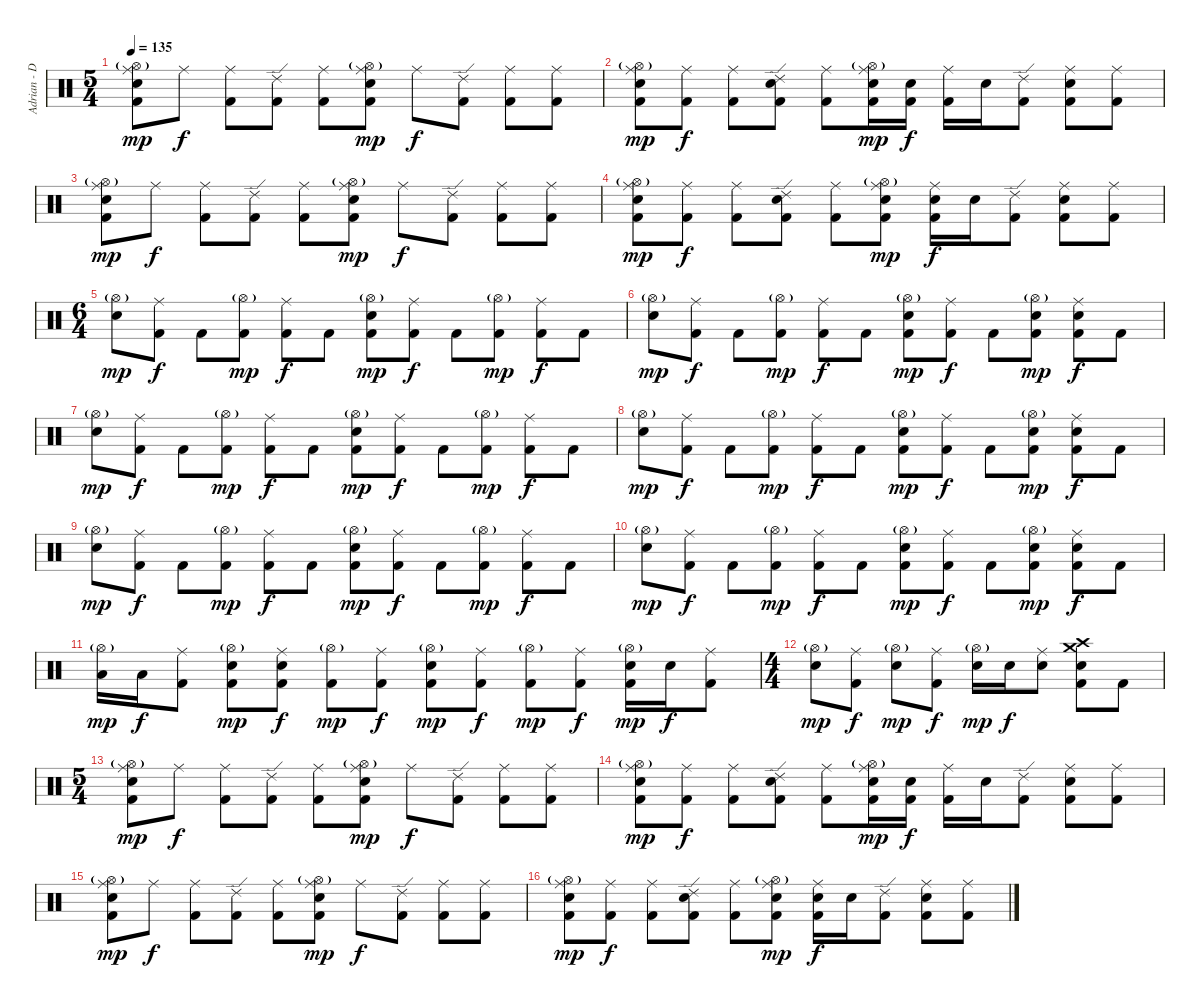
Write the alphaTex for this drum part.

\track ("Adrian - Drums" "Adrian - D") {instrument percussion}
\staff {score}
\articulation defaults
\ts (5 4)
\tempo 135
\clef neutral
\ks c
("Hi-Hat (open)"{g} "Ride (middle)" "Snare (hit) 2" "Kick (hit) 2").8{dy mp} "Ride (middle)".8{dy f} ("Ride (middle)" "Kick (hit) 2").8 ("Ride (edge) 2" "Kick (hit) 2").8 ("Ride (middle)" "Kick (hit) 2").8 ("Hi-Hat (open)"{g} "Ride (middle)" "Snare (hit) 2" "Kick (hit) 2").8{dy mp} "Ride (middle)".8{dy f} ("Ride (edge) 2" "Kick (hit) 2").8 ("Ride (middle)" "Kick (hit) 2").8 ("Ride (middle)" "Kick (hit) 2").8 |
("Hi-Hat (open)"{g} "Ride (middle)" "Snare (hit) 2" "Kick (hit) 2").8{dy mp} ("Ride (middle)" "Kick (hit) 2").8{dy f} ("Ride (middle)" "Kick (hit) 2").8 ("Ride (edge) 2" "Snare (hit) 2" "Kick (hit) 2").8 ("Ride (middle)" "Kick (hit) 2").8 ("Hi-Hat (open)"{g} "Ride (middle)" "Snare (hit) 2" "Kick (hit) 2").16{dy mp} ("Snare (hit) 2" "Kick (hit) 2").16{dy f} ("Ride (middle)" "Kick (hit) 2").16 "Snare (hit) 2".16 ("Ride (edge) 2" "Kick (hit) 2").8 ("Ride (middle)" "Snare (hit) 2" "Kick (hit) 2").8 ("Ride (middle)" "Kick (hit) 2").8 |
("Hi-Hat (open)"{g} "Ride (middle)" "Snare (hit) 2" "Kick (hit) 2").8{dy mp} "Ride (middle)".8{dy f} ("Ride (middle)" "Kick (hit) 2").8 ("Ride (edge) 2" "Kick (hit) 2").8 ("Ride (middle)" "Kick (hit) 2").8 ("Hi-Hat (open)"{g} "Ride (middle)" "Snare (hit) 2" "Kick (hit) 2").8{dy mp} "Ride (middle)".8{dy f} ("Ride (edge) 2" "Kick (hit) 2").8 ("Ride (middle)" "Kick (hit) 2").8 ("Ride (middle)" "Kick (hit) 2").8 |
("Hi-Hat (open)"{g} "Ride (middle)" "Snare (hit) 2" "Kick (hit) 2").8{dy mp} ("Ride (middle)" "Kick (hit) 2").8{dy f} ("Ride (middle)" "Kick (hit) 2").8 ("Ride (edge) 2" "Snare (hit) 2" "Kick (hit) 2").8 ("Ride (middle)" "Kick (hit) 2").8 ("Hi-Hat (open)"{g} "Ride (middle)" "Snare (hit) 2" "Kick (hit) 2").8{dy mp} ("Ride (middle)" "Snare (hit) 2" "Kick (hit) 2").16{dy f} "Snare (hit) 2".16 ("Ride (edge) 2" "Kick (hit) 2").8 ("Ride (middle)" "Snare (hit) 2" "Kick (hit) 2").8 ("Ride (middle)" "Kick (hit) 2").8 |
\ts (6 4)
("Hi-Hat (open)"{g} "Snare (hit) 2").8{dy mp} ("Ride (middle)" "Kick (hit) 2").8{dy f} "Kick (hit) 2".8 ("Hi-Hat (open)"{g} "Kick (hit) 2").8{dy mp} ("Ride (middle)" "Kick (hit) 2").8{dy f} "Kick (hit) 2".8 ("Hi-Hat (open)"{g} "Snare (hit) 2" "Kick (hit) 2").8{dy mp} ("Ride (middle)" "Kick (hit) 2").8{dy f} "Kick (hit) 2".8 ("Hi-Hat (open)"{g} "Kick (hit) 2").8{dy mp} ("Ride (middle)" "Kick (hit) 2").8{dy f} "Kick (hit) 2".8 |
("Hi-Hat (open)"{g} "Snare (hit) 2").8{dy mp} ("Ride (middle)" "Kick (hit) 2").8{dy f} "Kick (hit) 2".8 ("Hi-Hat (open)"{g} "Kick (hit) 2").8{dy mp} ("Ride (middle)" "Kick (hit) 2").8{dy f} "Kick (hit) 2".8 ("Hi-Hat (open)"{g} "Snare (hit) 2" "Kick (hit) 2").8{dy mp} ("Ride (middle)" "Kick (hit) 2").8{dy f} "Kick (hit) 2".8 ("Hi-Hat (open)"{g} "Snare (hit) 2" "Kick (hit) 2").8{dy mp} ("Ride (middle)" "Snare (hit) 2" "Kick (hit) 2").8{dy f} "Kick (hit) 2".8 |
("Hi-Hat (open)"{g} "Snare (hit) 2").8{dy mp} ("Ride (middle)" "Kick (hit) 2").8{dy f} "Kick (hit) 2".8 ("Hi-Hat (open)"{g} "Kick (hit) 2").8{dy mp} ("Ride (middle)" "Kick (hit) 2").8{dy f} "Kick (hit) 2".8 ("Hi-Hat (open)"{g} "Snare (hit) 2" "Kick (hit) 2").8{dy mp} ("Ride (middle)" "Kick (hit) 2").8{dy f} "Kick (hit) 2".8 ("Hi-Hat (open)"{g} "Kick (hit) 2").8{dy mp} ("Ride (middle)" "Kick (hit) 2").8{dy f} "Kick (hit) 2".8 |
("Hi-Hat (open)"{g} "Snare (hit) 2").8{dy mp} ("Ride (middle)" "Kick (hit) 2").8{dy f} "Kick (hit) 2".8 ("Hi-Hat (open)"{g} "Kick (hit) 2").8{dy mp} ("Ride (middle)" "Kick (hit) 2").8{dy f} "Kick (hit) 2".8 ("Hi-Hat (open)"{g} "Snare (hit) 2" "Kick (hit) 2").8{dy mp} ("Ride (middle)" "Kick (hit) 2").8{dy f} "Kick (hit) 2".8 ("Hi-Hat (open)"{g} "Snare (hit) 2" "Kick (hit) 2").8{dy mp} ("Ride (middle)" "Snare (hit) 2" "Kick (hit) 2").8{dy f} "Kick (hit) 2".8 |
("Hi-Hat (open)"{g} "Snare (hit) 2").8{dy mp} ("Ride (middle)" "Kick (hit) 2").8{dy f} "Kick (hit) 2".8 ("Hi-Hat (open)"{g} "Kick (hit) 2").8{dy mp} ("Ride (middle)" "Kick (hit) 2").8{dy f} "Kick (hit) 2".8 ("Hi-Hat (open)"{g} "Snare (hit) 2" "Kick (hit) 2").8{dy mp} ("Ride (middle)" "Kick (hit) 2").8{dy f} "Kick (hit) 2".8 ("Hi-Hat (open)"{g} "Kick (hit) 2").8{dy mp} ("Ride (middle)" "Kick (hit) 2").8{dy f} "Kick (hit) 2".8 |
("Hi-Hat (open)"{g} "Snare (hit) 2").8{dy mp} ("Ride (middle)" "Kick (hit) 2").8{dy f} "Kick (hit) 2".8 ("Hi-Hat (open)"{g} "Kick (hit) 2").8{dy mp} ("Ride (middle)" "Kick (hit) 2").8{dy f} "Kick (hit) 2".8 ("Hi-Hat (open)"{g} "Snare (hit) 2" "Kick (hit) 2").8{dy mp} ("Ride (middle)" "Kick (hit) 2").8{dy f} "Kick (hit) 2".8 ("Hi-Hat (open)"{g} "Snare (hit) 2" "Kick (hit) 2").8{dy mp} ("Ride (middle)" "Snare (hit) 2" "Kick (hit) 2").8{dy f} "Kick (hit) 2".8 |
("Hi-Hat (open)"{g} "Low Tom (hit)").16{dy mp} "Low Tom (hit)".16{dy f} ("Ride (middle)" "Kick (hit) 2").8 ("Hi-Hat (open)"{g} "Snare (hit) 2" "Kick (hit) 2").8{dy mp} ("Ride (middle)" "Snare (hit) 2" "Kick (hit) 2").8{dy f} ("Hi-Hat (open)"{g} "Kick (hit) 2").8{dy mp} ("Ride (middle)" "Kick (hit) 2").8{dy f} ("Hi-Hat (open)"{g} "Snare (hit) 2" "Kick (hit) 2").8{dy mp} ("Ride (middle)" "Kick (hit) 2").8{dy f} ("Hi-Hat (open)"{g} "Kick (hit) 2").8{dy mp} ("Ride (middle)" "Kick (hit) 2").8{dy f} ("Hi-Hat (open)"{g} "Snare (hit) 2" "Kick (hit) 2").16{dy mp} "Snare (hit) 2".16{dy f} ("Ride (middle)" "Kick (hit) 2").8 |
\ts (4 4)
("Hi-Hat (open)"{g} "Snare (hit) 2").8{dy mp} ("Ride (middle)" "Kick (hit) 2").8{dy f} ("Hi-Hat (open)"{g} "Snare (hit) 2").8{dy mp} ("Ride (middle)" "Kick (hit) 2").8{dy f} ("Hi-Hat (open)"{g} "Snare (hit) 2").16{dy mp} "Snare (hit) 2".16{dy f} ("Ride (middle)" "Snare (hit) 2").8 ("Crash medium (hit)" "Crash high (hit)" "Snare (hit) 2" "Kick (hit) 2").8 "Kick (hit) 2".8 |
\ts (5 4)
("Hi-Hat (open)"{g} "Ride (middle)" "Snare (hit) 2" "Kick (hit) 2").8{dy mp} "Ride (middle)".8{dy f} ("Ride (middle)" "Kick (hit) 2").8 ("Ride (edge) 2" "Kick (hit) 2").8 ("Ride (middle)" "Kick (hit) 2").8 ("Hi-Hat (open)"{g} "Ride (middle)" "Snare (hit) 2" "Kick (hit) 2").8{dy mp} "Ride (middle)".8{dy f} ("Ride (edge) 2" "Kick (hit) 2").8 ("Ride (middle)" "Kick (hit) 2").8 ("Ride (middle)" "Kick (hit) 2").8 |
("Hi-Hat (open)"{g} "Ride (middle)" "Snare (hit) 2" "Kick (hit) 2").8{dy mp} ("Ride (middle)" "Kick (hit) 2").8{dy f} ("Ride (middle)" "Kick (hit) 2").8 ("Ride (edge) 2" "Snare (hit) 2" "Kick (hit) 2").8 ("Ride (middle)" "Kick (hit) 2").8 ("Hi-Hat (open)"{g} "Ride (middle)" "Snare (hit) 2" "Kick (hit) 2").16{dy mp} ("Snare (hit) 2" "Kick (hit) 2").16{dy f} ("Ride (middle)" "Kick (hit) 2").16 "Snare (hit) 2".16 ("Ride (edge) 2" "Kick (hit) 2").8 ("Ride (middle)" "Snare (hit) 2" "Kick (hit) 2").8 ("Ride (middle)" "Kick (hit) 2").8 |
("Hi-Hat (open)"{g} "Ride (middle)" "Snare (hit) 2" "Kick (hit) 2").8{dy mp} "Ride (middle)".8{dy f} ("Ride (middle)" "Kick (hit) 2").8 ("Ride (edge) 2" "Kick (hit) 2").8 ("Ride (middle)" "Kick (hit) 2").8 ("Hi-Hat (open)"{g} "Ride (middle)" "Snare (hit) 2" "Kick (hit) 2").8{dy mp} "Ride (middle)".8{dy f} ("Ride (edge) 2" "Kick (hit) 2").8 ("Ride (middle)" "Kick (hit) 2").8 ("Ride (middle)" "Kick (hit) 2").8 |
("Hi-Hat (open)"{g} "Ride (middle)" "Snare (hit) 2" "Kick (hit) 2").8{dy mp} ("Ride (middle)" "Kick (hit) 2").8{dy f} ("Ride (middle)" "Kick (hit) 2").8 ("Ride (edge) 2" "Snare (hit) 2" "Kick (hit) 2").8 ("Ride (middle)" "Kick (hit) 2").8 ("Hi-Hat (open)"{g} "Ride (middle)" "Snare (hit) 2" "Kick (hit) 2").8{dy mp} ("Ride (middle)" "Snare (hit) 2" "Kick (hit) 2").16{dy f} "Snare (hit) 2".16 ("Ride (edge) 2" "Kick (hit) 2").8 ("Ride (middle)" "Snare (hit) 2" "Kick (hit) 2").8 ("Ride (middle)" "Kick (hit) 2").8
